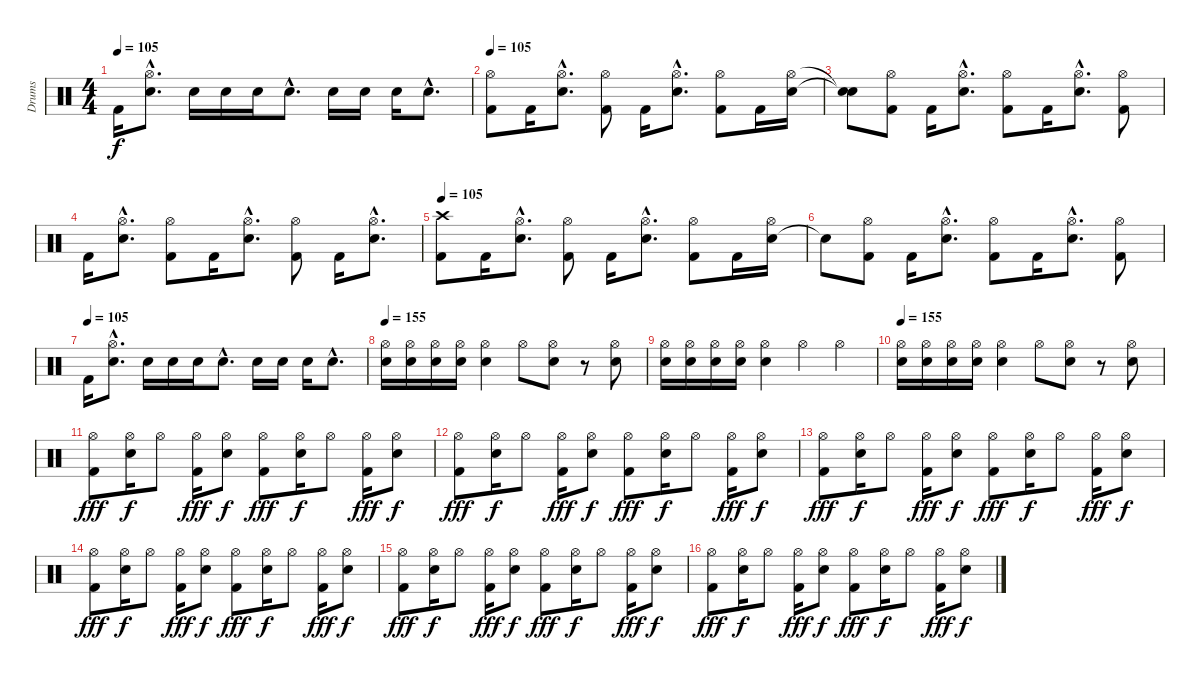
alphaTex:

\track ("Drums" "Drums") {instrument percussion}
\staff {score}
\articulation defaults
\ts (4 4)
\tempo 105
\clef neutral
\ks c "Kick (hit) 2".16{dy f}
("Electric Snare (hit)"{hac} "Hi-Hat (open)"{hac}).8{d} "Electric Snare (hit)".16 "Electric Snare (hit)".16 "Electric Snare (hit)".16 "Electric Snare (hit)"{hac}.8{d} "Electric Snare (hit)".16 "Electric Snare (hit)".16 "Electric Snare (hit)".16 "Electric Snare (hit)"{hac}.8{d} |
\tempo 105
("Kick (hit) 2" "Hi-Hat (open)").8 "Kick (hit) 2".16 ("Electric Snare (hit)"{hac} "Hi-Hat (open)"{hac}).8{d} ("Kick (hit) 2" "Hi-Hat (open)").8 "Kick (hit) 2".16 ("Electric Snare (hit)"{hac} "Hi-Hat (open)"{hac}).8{d} ("Kick (hit) 2" "Hi-Hat (open)").8 "Kick (hit) 2".16 ("Electric Snare (hit)" "Hi-Hat (open)").16 |
("Snare (hit)"{t} "Snare (hit)"{t}).8 ("Kick (hit) 2" "Hi-Hat (open)").8 "Kick (hit) 2".16 ("Electric Snare (hit)"{hac} "Hi-Hat (open)"{hac}).8{d} ("Kick (hit) 2" "Hi-Hat (open)").8 "Kick (hit) 2".16 ("Electric Snare (hit)"{hac} "Hi-Hat (open)"{hac}).8{d} ("Kick (hit) 2" "Hi-Hat (open)").8 |
"Kick (hit) 2".16 ("Electric Snare (hit)"{hac} "Hi-Hat (open)"{hac}).8{d} ("Kick (hit) 2" "Hi-Hat (open)").8 "Kick (hit) 2".16 ("Electric Snare (hit)"{hac} "Hi-Hat (open)"{hac}).8{d} ("Kick (hit) 2" "Hi-Hat (open)").8 "Kick (hit) 2".16 ("Electric Snare (hit)"{hac} "Hi-Hat (open)"{hac}).8{d} |
\tempo 105
("Kick (hit) 2" "Crash high (hit)").8 "Kick (hit) 2".16 ("Electric Snare (hit)"{hac} "Hi-Hat (open)"{hac}).8{d} ("Kick (hit) 2" "Hi-Hat (open)").8 "Kick (hit) 2".16 ("Electric Snare (hit)"{hac} "Hi-Hat (open)"{hac}).8{d} ("Kick (hit) 2" "Hi-Hat (open)").8 "Kick (hit) 2".16 ("Electric Snare (hit)" "Hi-Hat (open)").16 |
"Snare (hit)"{t}.8 ("Kick (hit) 2" "Hi-Hat (open)").8 "Kick (hit) 2".16 ("Electric Snare (hit)"{hac} "Hi-Hat (open)"{hac}).8{d} ("Kick (hit) 2" "Hi-Hat (open)").8 "Kick (hit) 2".16 ("Electric Snare (hit)"{hac} "Hi-Hat (open)"{hac}).8{d} ("Kick (hit) 2" "Hi-Hat (open)").8 |
\tempo (105)
"Kick (hit) 2".16 ("Electric Snare (hit)"{hac} "Hi-Hat (open)"{hac}).8{d} "Electric Snare (hit)".16 "Electric Snare (hit)".16 "Electric Snare (hit)".16 "Electric Snare (hit)"{hac}.8{d} "Electric Snare (hit)".16 "Electric Snare (hit)".16 "Electric Snare (hit)".16 "Electric Snare (hit)"{hac}.8{d} |
\tempo 155
("Electric Snare (hit)" "Hi-Hat (open)").16 ("Electric Snare (hit)" "Hi-Hat (open)").16 ("Electric Snare (hit)" "Hi-Hat (open)").16 ("Electric Snare (hit)" "Hi-Hat (open)").16 ("Electric Snare (hit)" "Hi-Hat (open)").4 "Hi-Hat (open)".8 ("Electric Snare (hit)" "Hi-Hat (open)").8 r.8 ("Electric Snare (hit)" "Hi-Hat (open)").8 |
("Electric Snare (hit)" "Hi-Hat (open)").16 ("Electric Snare (hit)" "Hi-Hat (open)").16 ("Electric Snare (hit)" "Hi-Hat (open)").16 ("Electric Snare (hit)" "Hi-Hat (open)").16 ("Electric Snare (hit)" "Hi-Hat (open)").4 "Hi-Hat (open)".4 "Hi-Hat (open)".4 |
\tempo 155
("Electric Snare (hit)" "Hi-Hat (open)").16 ("Electric Snare (hit)" "Hi-Hat (open)").16 ("Electric Snare (hit)" "Hi-Hat (open)").16 ("Electric Snare (hit)" "Hi-Hat (open)").16 ("Electric Snare (hit)" "Hi-Hat (open)").4 "Hi-Hat (open)".8 ("Electric Snare (hit)" "Hi-Hat (open)").8 r.8 ("Electric Snare (hit)" "Hi-Hat (open)").8 |
("Kick (hit) 2" "Hi-Hat (open)").8{dy fff} ("Electric Snare (hit)" "Hi-Hat (open)").16{dy f} "Hi-Hat (open)".8 ("Kick (hit) 2" "Hi-Hat (open)").16{dy fff} ("Electric Snare (hit)" "Hi-Hat (open)").8{dy f} ("Kick (hit) 2" "Hi-Hat (open)").8{dy fff} ("Electric Snare (hit)" "Hi-Hat (open)").16{dy f} "Hi-Hat (open)".8 ("Kick (hit) 2" "Hi-Hat (open)").16{dy fff} ("Electric Snare (hit)" "Hi-Hat (open)").8{dy f} |
("Kick (hit) 2" "Hi-Hat (open)").8{dy fff} ("Electric Snare (hit)" "Hi-Hat (open)").16{dy f} "Hi-Hat (open)".8 ("Kick (hit) 2" "Hi-Hat (open)").16{dy fff} ("Electric Snare (hit)" "Hi-Hat (open)").8{dy f} ("Kick (hit) 2" "Hi-Hat (open)").8{dy fff} ("Electric Snare (hit)" "Hi-Hat (open)").16{dy f} "Hi-Hat (open)".8 ("Kick (hit) 2" "Hi-Hat (open)").16{dy fff} ("Electric Snare (hit)" "Hi-Hat (open)").8{dy f} |
("Kick (hit) 2" "Hi-Hat (open)").8{dy fff} ("Electric Snare (hit)" "Hi-Hat (open)").16{dy f} "Hi-Hat (open)".8 ("Kick (hit) 2" "Hi-Hat (open)").16{dy fff} ("Electric Snare (hit)" "Hi-Hat (open)").8{dy f} ("Kick (hit) 2" "Hi-Hat (open)").8{dy fff} ("Electric Snare (hit)" "Hi-Hat (open)").16{dy f} "Hi-Hat (open)".8 ("Kick (hit) 2" "Hi-Hat (open)").16{dy fff} ("Electric Snare (hit)" "Hi-Hat (open)").8{dy f} |
("Kick (hit) 2" "Hi-Hat (open)").8{dy fff} ("Electric Snare (hit)" "Hi-Hat (open)").16{dy f} "Hi-Hat (open)".8 ("Kick (hit) 2" "Hi-Hat (open)").16{dy fff} ("Electric Snare (hit)" "Hi-Hat (open)").8{dy f} ("Kick (hit) 2" "Hi-Hat (open)").8{dy fff} ("Electric Snare (hit)" "Hi-Hat (open)").16{dy f} "Hi-Hat (open)".8 ("Kick (hit) 2" "Hi-Hat (open)").16{dy fff} ("Electric Snare (hit)" "Hi-Hat (open)").8{dy f} |
("Kick (hit) 2" "Hi-Hat (open)").8{dy fff} ("Electric Snare (hit)" "Hi-Hat (open)").16{dy f} "Hi-Hat (open)".8 ("Kick (hit) 2" "Hi-Hat (open)").16{dy fff} ("Electric Snare (hit)" "Hi-Hat (open)").8{dy f} ("Kick (hit) 2" "Hi-Hat (open)").8{dy fff} ("Electric Snare (hit)" "Hi-Hat (open)").16{dy f} "Hi-Hat (open)".8 ("Kick (hit) 2" "Hi-Hat (open)").16{dy fff} ("Electric Snare (hit)" "Hi-Hat (open)").8{dy f} |
("Kick (hit) 2" "Hi-Hat (open)").8{dy fff} ("Electric Snare (hit)" "Hi-Hat (open)").16{dy f} "Hi-Hat (open)".8 ("Kick (hit) 2" "Hi-Hat (open)").16{dy fff} ("Electric Snare (hit)" "Hi-Hat (open)").8{dy f} ("Kick (hit) 2" "Hi-Hat (open)").8{dy fff} ("Electric Snare (hit)" "Hi-Hat (open)").16{dy f} "Hi-Hat (open)".8 ("Kick (hit) 2" "Hi-Hat (open)").16{dy fff} ("Electric Snare (hit)" "Hi-Hat (open)").8{dy f}
